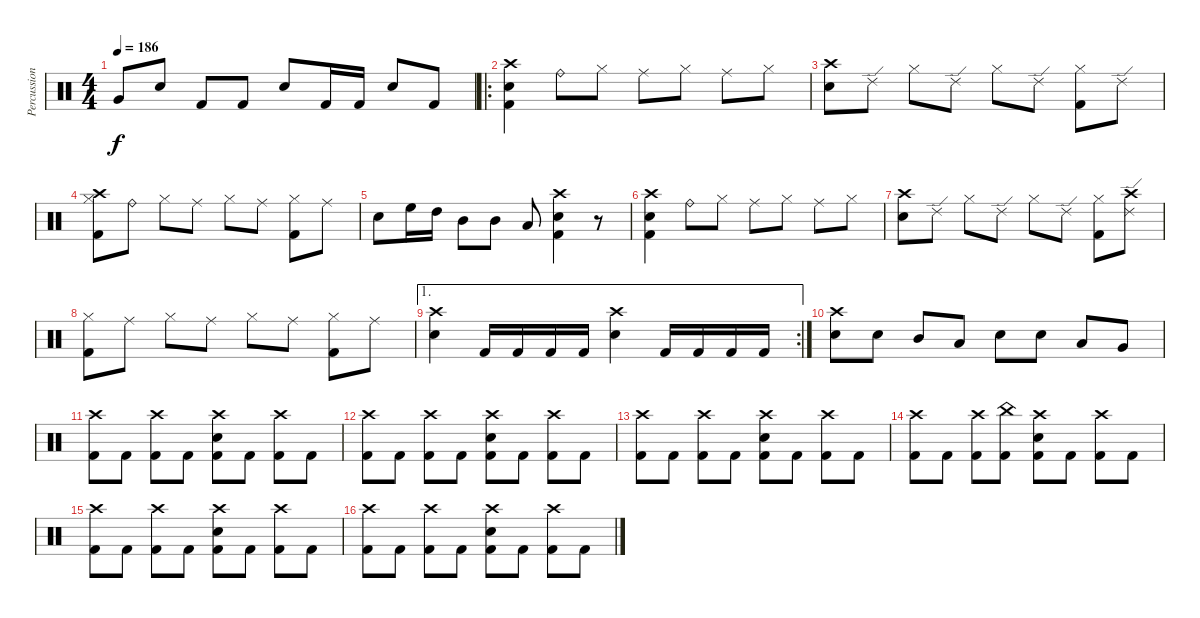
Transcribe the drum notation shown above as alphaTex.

\track ("Percussion" "Percussion") {instrument percussion}
\staff {score}
\articulation defaults
\ts (4 4)
\tempo 186
\clef neutral
\ks c "Very Low Tom (hit)".8{dy f} "Electric Snare (hit)".8 "Kick (hit) 2".8 "Kick (hit) 2".8 "Electric Snare (hit)".8 "Kick (hit) 2".16 "Kick (hit) 2".16 "Electric Snare (hit)".8 "Kick (hit) 2".8
|
\ro
("Crash high (hit)" "Electric Snare (hit)" "Kick (hit) 2").4 "Ride (bell)".8 "Hi-Hat (closed)".8 "Ride (middle)".8 "Hi-Hat (closed)".8 "Ride (middle)".8 "Hi-Hat (closed)".8 |
("Crash high (hit)" "Electric Snare (hit)").8 "Ride (edge) 2".8 "Hi-Hat (closed)".8 "Ride (edge) 2".8 "Hi-Hat (closed)".8 "Ride (edge) 2".8 ("Hi-Hat (closed)" "Kick (hit) 2").8 "Ride (edge) 2".8 |
("Crash high (hit)" "Hi-Hat (closed)" "Kick (hit) 2").8 "Ride (bell)".8 "Hi-Hat (closed)".8 "Ride (middle)".8 "Hi-Hat (closed)".8 "Ride (middle)".8 ("Hi-Hat (closed)" "Kick (hit) 2").8 "Ride (middle)".8 |
"Electric Snare (hit)".8 "High Floor Tom (hit)".16 "High Tom (hit)".16 "Mid Tom (hit)".8 "Mid Tom (hit)".8 "Low Tom (hit)".8 ("Crash high (hit)" "Electric Snare (hit)" "Kick (hit) 2").4 r.8 |
("Crash high (hit)" "Electric Snare (hit)" "Kick (hit) 2").4 "Ride (bell)".8 "Hi-Hat (closed)".8 "Ride (middle)".8 "Hi-Hat (closed)".8 "Ride (middle)".8 "Hi-Hat (closed)".8 |
("Crash high (hit)" "Electric Snare (hit)").8 "Ride (edge) 2".8 "Hi-Hat (closed)".8 "Ride (edge) 2".8 "Hi-Hat (closed)".8 "Ride (edge) 2".8 ("Hi-Hat (closed)" "Kick (hit) 2").8 ("Ride (edge) 2" "Crash high (hit)").8 |
("Hi-Hat (closed)" "Kick (hit) 2").8 "Ride (middle)".8 "Hi-Hat (closed)".8 "Ride (middle)".8 "Hi-Hat (closed)".8 "Ride (middle)".8 ("Hi-Hat (closed)" "Kick (hit) 2").8 "Ride (middle)".8 |
\ae 1
\rc 2
("Crash high (hit)" "Electric Snare (hit)").4 "Kick (hit) 2".16 "Kick (hit) 2".16 "Kick (hit) 2".16 "Kick (hit) 2".16 ("Crash high (hit)" "Electric Snare (hit)").4 "Kick (hit) 2".16 "Kick (hit) 2".16 "Kick (hit) 2".16 "Kick (hit) 2".16 |
("Crash high (hit)" "Electric Snare (hit)").8 "Electric Snare (hit)".8 "Mid Tom (hit)".8 "Low Tom (hit)".8 "Electric Snare (hit)".8 "Electric Snare (hit)".8 "Low Tom (hit)".8 "Very Low Tom (hit)".8 |
("Crash high (hit)" "Kick (hit) 2").8 "Kick (hit) 2".8 ("Crash high (hit)" "Kick (hit) 2").8 "Kick (hit) 2".8 ("Crash high (hit)" "Electric Snare (hit)" "Kick (hit) 2").8 "Kick (hit) 2".8 ("Crash high (hit)" "Kick (hit) 2").8 "Kick (hit) 2".8 |
("Crash high (hit)" "Kick (hit) 2").8 "Kick (hit) 2".8 ("Crash high (hit)" "Kick (hit) 2").8 "Kick (hit) 2".8 ("Crash high (hit)" "Electric Snare (hit)" "Kick (hit) 2").8 "Kick (hit) 2".8 ("Crash high (hit)" "Kick (hit) 2").8 "Kick (hit) 2".8 |
("Crash high (hit)" "Kick (hit) 2").8 "Kick (hit) 2".8 ("Crash high (hit)" "Kick (hit) 2").8 "Kick (hit) 2".8 ("Crash high (hit)" "Electric Snare (hit)" "Kick (hit) 2").8 "Kick (hit) 2".8 ("Crash high (hit)" "Kick (hit) 2").8 "Kick (hit) 2".8 |
("Crash high (hit)" "Kick (hit) 2").8 "Kick (hit) 2".8 ("Crash high (hit)" "Kick (hit) 2").8 ("China (hit)" "Kick (hit) 2").8 ("Crash high (hit)" "Electric Snare (hit)" "Kick (hit) 2").8 "Kick (hit) 2".8 ("Crash high (hit)" "Kick (hit) 2").8 "Kick (hit) 2".8 |
("Crash high (hit)" "Kick (hit) 2").8 "Kick (hit) 2".8 ("Crash high (hit)" "Kick (hit) 2").8 "Kick (hit) 2".8 ("Crash high (hit)" "Electric Snare (hit)" "Kick (hit) 2").8 "Kick (hit) 2".8 ("Crash high (hit)" "Kick (hit) 2").8 "Kick (hit) 2".8 |
("Crash high (hit)" "Kick (hit) 2").8 "Kick (hit) 2".8 ("Crash high (hit)" "Kick (hit) 2").8 "Kick (hit) 2".8 ("Crash high (hit)" "Electric Snare (hit)" "Kick (hit) 2").8 "Kick (hit) 2".8 ("Crash high (hit)" "Kick (hit) 2").8 "Kick (hit) 2".8
